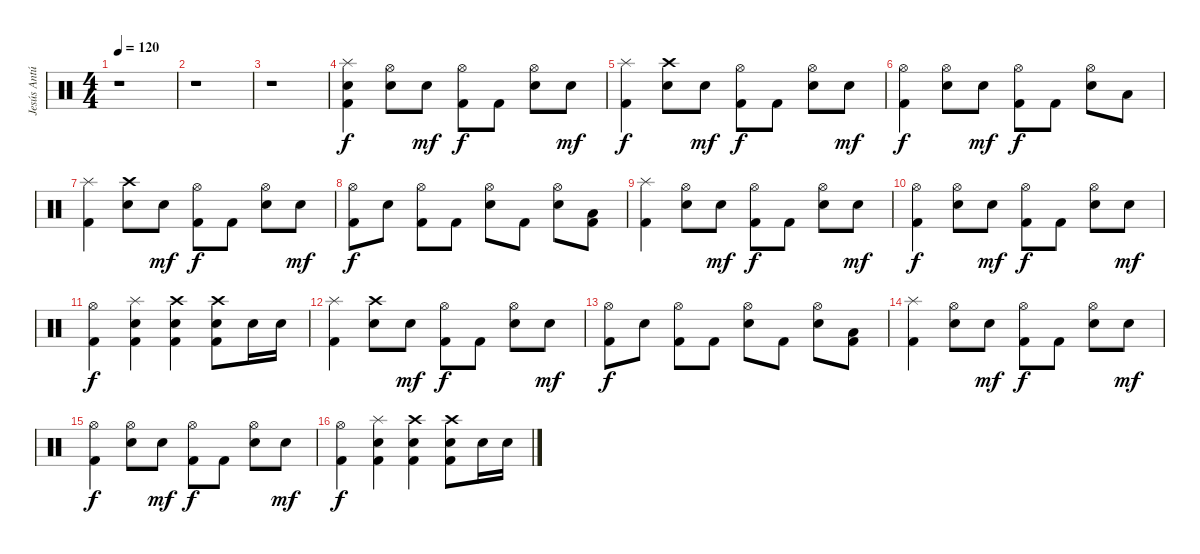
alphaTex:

\track ("Jesús Antúnez" "Jesús Antú") {instrument percussion}
\staff {score}
\articulation defaults
\ts (4 4)
\tempo 120
\clef neutral
\ks c
r.1{dy f} |
r.1 |
r.1 |
("Kick (hit) 2" "Electric Snare (hit)" "Splash (hit)").4 ("Electric Snare (hit)" "Hi-Hat (open)").8 "Electric Snare (hit)".8{dy mf} ("Kick (hit) 2" "Hi-Hat (open)").8{dy f} "Kick (hit) 2".8 ("Electric Snare (hit)" "Hi-Hat (open)").8 "Electric Snare (hit)".8{dy mf} |
("Kick (hit) 2" "Splash (hit)").4{dy f} ("Electric Snare (hit)" "Crash high (hit)").8 "Electric Snare (hit)".8{dy mf} ("Kick (hit) 2" "Hi-Hat (open)").8{dy f} "Kick (hit) 2".8 ("Electric Snare (hit)" "Hi-Hat (open)").8 "Electric Snare (hit)".8{dy mf} |
("Kick (hit) 2" "Hi-Hat (open)").4{dy f} ("Electric Snare (hit)" "Hi-Hat (open)").8 "Electric Snare (hit)".8{dy mf} ("Kick (hit) 2" "Hi-Hat (open)").8{dy f} "Kick (hit) 2".8 ("Electric Snare (hit)" "Hi-Hat (open)").8 "Low Tom (hit)".8 |
("Kick (hit) 2" "Splash (hit)").4 ("Electric Snare (hit)" "Crash high (hit)").8 "Electric Snare (hit)".8{dy mf} ("Kick (hit) 2" "Hi-Hat (open)").8{dy f} "Kick (hit) 2".8 ("Electric Snare (hit)" "Hi-Hat (open)").8 "Electric Snare (hit)".8{dy mf} |
("Kick (hit) 2" "Hi-Hat (open)").8{dy f} "Electric Snare (hit)".8 ("Kick (hit) 2" "Hi-Hat (open)").8 "Kick (hit) 2".8 ("Electric Snare (hit)" "Hi-Hat (open)").8 "Kick (hit) 2".8 ("Electric Snare (hit)" "Hi-Hat (open)").8 ("Kick (hit) 2" "Low Tom (hit)").8 |
("Kick (hit) 2" "Splash (hit)").4 ("Electric Snare (hit)" "Hi-Hat (open)").8 "Electric Snare (hit)".8{dy mf} ("Kick (hit) 2" "Hi-Hat (open)").8{dy f} "Kick (hit) 2".8 ("Electric Snare (hit)" "Hi-Hat (open)").8 "Electric Snare (hit)".8{dy mf} |
("Kick (hit) 2" "Hi-Hat (open)").4{dy f} ("Electric Snare (hit)" "Hi-Hat (open)").8 "Electric Snare (hit)".8{dy mf} ("Kick (hit) 2" "Hi-Hat (open)").8{dy f} "Kick (hit) 2".8 ("Electric Snare (hit)" "Hi-Hat (open)").8 "Electric Snare (hit)".8{dy mf} |
("Kick (hit) 2" "Hi-Hat (open)").4{dy f} ("Kick (hit) 2" "Electric Snare (hit)" "Splash (hit)").4 ("Kick (hit) 2" "Electric Snare (hit)" "Crash high (hit)").4 ("Kick (hit) 2" "Electric Snare (hit)" "Crash high (hit)").8 "Electric Snare (hit)".16 "Electric Snare (hit)".16 |
("Kick (hit) 2" "Splash (hit)").4 ("Electric Snare (hit)" "Crash high (hit)").8 "Electric Snare (hit)".8{dy mf} ("Kick (hit) 2" "Hi-Hat (open)").8{dy f} "Kick (hit) 2".8 ("Electric Snare (hit)" "Hi-Hat (open)").8 "Electric Snare (hit)".8{dy mf} |
("Kick (hit) 2" "Hi-Hat (open)").8{dy f} "Electric Snare (hit)".8 ("Kick (hit) 2" "Hi-Hat (open)").8 "Kick (hit) 2".8 ("Electric Snare (hit)" "Hi-Hat (open)").8 "Kick (hit) 2".8 ("Electric Snare (hit)" "Hi-Hat (open)").8 ("Kick (hit) 2" "Low Tom (hit)").8 |
("Kick (hit) 2" "Splash (hit)").4 ("Electric Snare (hit)" "Hi-Hat (open)").8 "Electric Snare (hit)".8{dy mf} ("Kick (hit) 2" "Hi-Hat (open)").8{dy f} "Kick (hit) 2".8 ("Electric Snare (hit)" "Hi-Hat (open)").8 "Electric Snare (hit)".8{dy mf} |
("Kick (hit) 2" "Hi-Hat (open)").4{dy f} ("Electric Snare (hit)" "Hi-Hat (open)").8 "Electric Snare (hit)".8{dy mf} ("Kick (hit) 2" "Hi-Hat (open)").8{dy f} "Kick (hit) 2".8 ("Electric Snare (hit)" "Hi-Hat (open)").8 "Electric Snare (hit)".8{dy mf} |
("Kick (hit) 2" "Hi-Hat (open)").4{dy f} ("Kick (hit) 2" "Electric Snare (hit)" "Splash (hit)").4 ("Kick (hit) 2" "Electric Snare (hit)" "Crash high (hit)").4 ("Kick (hit) 2" "Electric Snare (hit)" "Crash high (hit)").8 "Electric Snare (hit)".16 "Electric Snare (hit)".16
